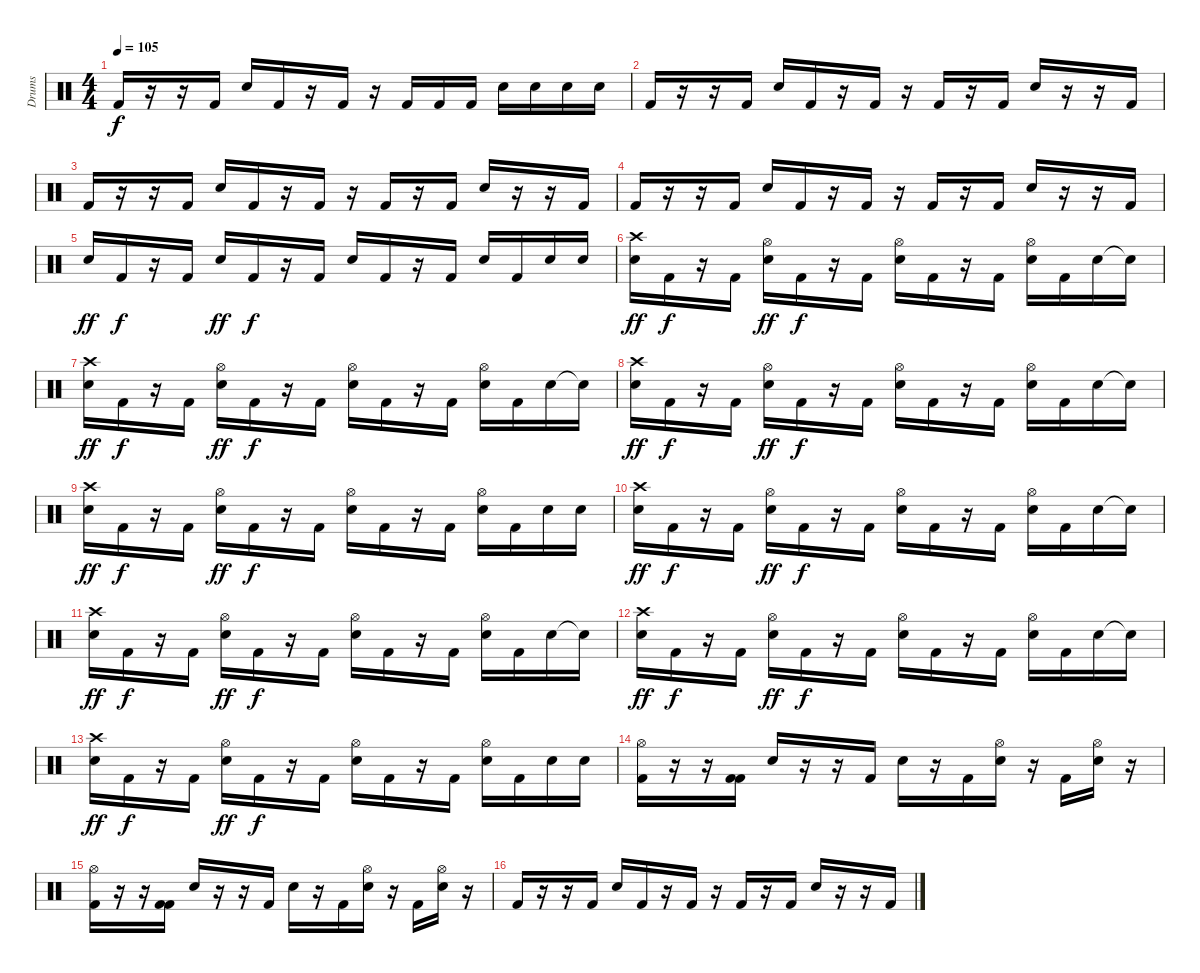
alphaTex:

\track ("Drums" "Drums") {instrument percussion}
\staff {score}
\articulation defaults
\ts (4 4)
\tempo 105
\clef neutral
\ks c "Kick (hit) 2".16{dy f}
r.16 r.16 "Kick (hit) 2".16 "Electric Snare (hit)".16 "Kick (hit) 2".16 r.16 "Kick (hit) 2".16 r.16 "Kick (hit) 2".16 "Kick (hit) 2".16 "Kick (hit) 2".16 "Electric Snare (hit)".16 "Electric Snare (hit)".16 "Electric Snare (hit)".16 "Electric Snare (hit)".16 |
"Kick (hit) 2".16 r.16 r.16 "Kick (hit) 2".16 "Electric Snare (hit)".16 "Kick (hit) 2".16 r.16 "Kick (hit) 2".16 r.16 "Kick (hit) 2".16 r.16 "Kick (hit) 2".16 "Electric Snare (hit)".16 r.16 r.16 "Kick (hit) 2".16 |
"Kick (hit) 2".16 r.16 r.16 "Kick (hit) 2".16 "Electric Snare (hit)".16 "Kick (hit) 2".16 r.16 "Kick (hit) 2".16 r.16 "Kick (hit) 2".16 r.16 "Kick (hit) 2".16 "Electric Snare (hit)".16 r.16 r.16 "Kick (hit) 2".16 |
"Kick (hit) 2".16 r.16 r.16 "Kick (hit) 2".16 "Electric Snare (hit)".16 "Kick (hit) 2".16 r.16 "Kick (hit) 2".16 r.16 "Kick (hit) 2".16 r.16 "Kick (hit) 2".16 "Electric Snare (hit)".16 r.16 r.16 "Kick (hit) 2".16 |
"Electric Snare (hit)".16{dy ff} "Kick (hit) 2".16{dy f} r.16 "Kick (hit) 2".16 "Electric Snare (hit)".16{dy ff} "Kick (hit) 2".16{dy f} r.16 "Kick (hit) 2".16 "Electric Snare (hit)".16 "Kick (hit) 2".16 r.16 "Kick (hit) 2".16 "Electric Snare (hit)".16 "Kick (hit) 2".16 "Electric Snare (hit)".16 "Electric Snare (hit)".16 |
("Crash high (hit)" "Electric Snare (hit)").16{dy ff} "Kick (hit) 2".16{dy f} r.16 "Kick (hit) 2".16 ("Hi-Hat (open)" "Electric Snare (hit)").16{dy ff} "Kick (hit) 2".16{dy f} r.16 "Kick (hit) 2".16 ("Hi-Hat (open)" "Electric Snare (hit)").16 "Kick (hit) 2".16 r.16 "Kick (hit) 2".16 ("Hi-Hat (open)" "Electric Snare (hit)").16 "Kick (hit) 2".16 "Electric Snare (hit)".16 "Electric Snare (hit)"{t}.16 |
("Crash high (hit)" "Electric Snare (hit)").16{dy ff} "Kick (hit) 2".16{dy f} r.16 "Kick (hit) 2".16 ("Hi-Hat (open)" "Electric Snare (hit)").16{dy ff} "Kick (hit) 2".16{dy f} r.16 "Kick (hit) 2".16 ("Hi-Hat (open)" "Electric Snare (hit)").16 "Kick (hit) 2".16 r.16 "Kick (hit) 2".16 ("Hi-Hat (open)" "Electric Snare (hit)").16 "Kick (hit) 2".16 "Electric Snare (hit)".16 "Electric Snare (hit)"{t}.16 |
("Crash high (hit)" "Electric Snare (hit)").16{dy ff} "Kick (hit) 2".16{dy f} r.16 "Kick (hit) 2".16 ("Hi-Hat (open)" "Electric Snare (hit)").16{dy ff} "Kick (hit) 2".16{dy f} r.16 "Kick (hit) 2".16 ("Hi-Hat (open)" "Electric Snare (hit)").16 "Kick (hit) 2".16 r.16 "Kick (hit) 2".16 ("Hi-Hat (open)" "Electric Snare (hit)").16 "Kick (hit) 2".16 "Electric Snare (hit)".16 "Electric Snare (hit)"{t}.16 |
("Crash high (hit)" "Electric Snare (hit)").16{dy ff} "Kick (hit) 2".16{dy f} r.16 "Kick (hit) 2".16 ("Hi-Hat (open)" "Electric Snare (hit)").16{dy ff} "Kick (hit) 2".16{dy f} r.16 "Kick (hit) 2".16 ("Hi-Hat (open)" "Electric Snare (hit)").16 "Kick (hit) 2".16 r.16 "Kick (hit) 2".16 ("Hi-Hat (open)" "Electric Snare (hit)").16 "Kick (hit) 2".16 "Electric Snare (hit)".16 "Electric Snare (hit)".16 |
("Crash high (hit)" "Electric Snare (hit)").16{dy ff} "Kick (hit) 2".16{dy f} r.16 "Kick (hit) 2".16 ("Hi-Hat (open)" "Electric Snare (hit)").16{dy ff} "Kick (hit) 2".16{dy f} r.16 "Kick (hit) 2".16 ("Hi-Hat (open)" "Electric Snare (hit)").16 "Kick (hit) 2".16 r.16 "Kick (hit) 2".16 ("Hi-Hat (open)" "Electric Snare (hit)").16 "Kick (hit) 2".16 "Electric Snare (hit)".16 "Electric Snare (hit)"{t}.16 |
("Crash high (hit)" "Electric Snare (hit)").16{dy ff} "Kick (hit) 2".16{dy f} r.16 "Kick (hit) 2".16 ("Hi-Hat (open)" "Electric Snare (hit)").16{dy ff} "Kick (hit) 2".16{dy f} r.16 "Kick (hit) 2".16 ("Hi-Hat (open)" "Electric Snare (hit)").16 "Kick (hit) 2".16 r.16 "Kick (hit) 2".16 ("Hi-Hat (open)" "Electric Snare (hit)").16 "Kick (hit) 2".16 "Electric Snare (hit)".16 "Electric Snare (hit)"{t}.16 |
("Crash high (hit)" "Electric Snare (hit)").16{dy ff} "Kick (hit) 2".16{dy f} r.16 "Kick (hit) 2".16 ("Hi-Hat (open)" "Electric Snare (hit)").16{dy ff} "Kick (hit) 2".16{dy f} r.16 "Kick (hit) 2".16 ("Hi-Hat (open)" "Electric Snare (hit)").16 "Kick (hit) 2".16 r.16 "Kick (hit) 2".16 ("Hi-Hat (open)" "Electric Snare (hit)").16 "Kick (hit) 2".16 "Electric Snare (hit)".16 "Electric Snare (hit)"{t}.16 |
("Crash high (hit)" "Electric Snare (hit)").16{dy ff} "Kick (hit) 2".16{dy f} r.16 "Kick (hit) 2".16 ("Hi-Hat (open)" "Electric Snare (hit)").16{dy ff} "Kick (hit) 2".16{dy f} r.16 "Kick (hit) 2".16 ("Hi-Hat (open)" "Electric Snare (hit)").16 "Kick (hit) 2".16 r.16 "Kick (hit) 2".16 ("Hi-Hat (open)" "Electric Snare (hit)").16 "Kick (hit) 2".16 "Electric Snare (hit)".16 "Electric Snare (hit)".16 |
("Hi-Hat (open)" "Kick (hit) 2").16 r.16 r.16 ("Kick (hit) 2" "Kick (hit) 2").16 "Electric Snare (hit)".16 r.16 r.16 "Kick (hit) 2".16 "Electric Snare (hit)".16 r.16 "Kick (hit) 2".16 ("Hi-Hat (open)" "Electric Snare (hit)").16 r.16 "Kick (hit) 2".16 ("Hi-Hat (open)" "Electric Snare (hit)").16 r.16 |
("Hi-Hat (open)" "Kick (hit) 2").16 r.16 r.16 ("Kick (hit) 2" "Kick (hit) 2").16 "Electric Snare (hit)".16 r.16 r.16 "Kick (hit) 2".16 "Electric Snare (hit)".16 r.16 "Kick (hit) 2".16 ("Hi-Hat (open)" "Electric Snare (hit)").16 r.16 "Kick (hit) 2".16 ("Hi-Hat (open)" "Electric Snare (hit)").16 r.16 |
"Kick (hit) 2".16 r.16 r.16 "Kick (hit) 2".16 "Electric Snare (hit)".16 "Kick (hit) 2".16 r.16 "Kick (hit) 2".16 r.16 "Kick (hit) 2".16 r.16 "Kick (hit) 2".16 "Electric Snare (hit)".16 r.16 r.16 "Kick (hit) 2".16
